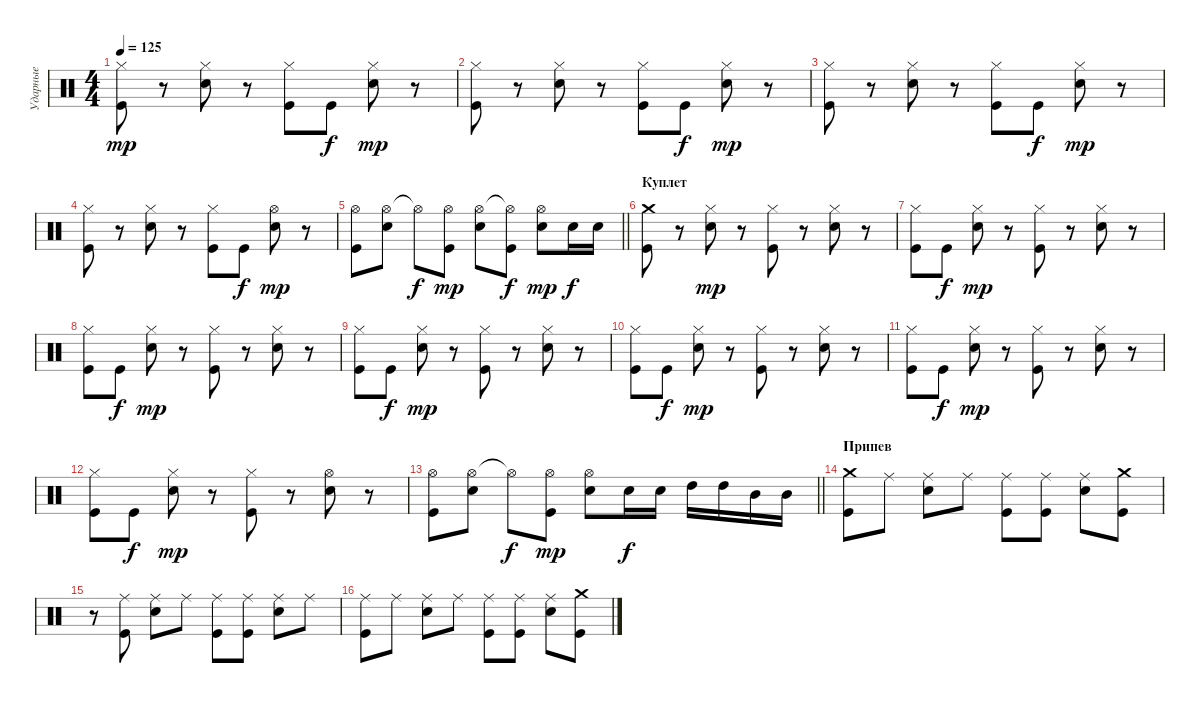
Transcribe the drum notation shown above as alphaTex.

\track ("Ударные" "Ударные") {instrument percussion}
\staff {score}
\articulation defaults
\ts (4 4)
\tempo 125
\clef neutral
\ks c
("Hi-Hat (closed)" "Kick (hit)").8{dy mp} r.8 ("Hi-Hat (closed)" "Electric Snare (hit)").8 r.8 ("Hi-Hat (closed)" "Kick (hit)").8 "Kick (hit)".8{dy f} ("Hi-Hat (closed)" "Electric Snare (hit)").8{dy mp} r.8 |
("Hi-Hat (closed)" "Kick (hit)").8 r.8 ("Hi-Hat (closed)" "Electric Snare (hit)").8 r.8 ("Hi-Hat (closed)" "Kick (hit)").8 "Kick (hit)".8{dy f} ("Hi-Hat (closed)" "Electric Snare (hit)").8{dy mp} r.8 |
("Hi-Hat (closed)" "Kick (hit)").8 r.8 ("Hi-Hat (closed)" "Electric Snare (hit)").8 r.8 ("Hi-Hat (closed)" "Kick (hit)").8 "Kick (hit)".8{dy f} ("Hi-Hat (closed)" "Electric Snare (hit)").8{dy mp} r.8 |
("Hi-Hat (closed)" "Kick (hit)").8 r.8 ("Hi-Hat (closed)" "Electric Snare (hit)").8 r.8 ("Hi-Hat (closed)" "Kick (hit)").8 "Kick (hit)".8{dy f} ("Hi-Hat (open)" "Electric Snare (hit)").8{dy mp} r.8 |
\barLineRight lightlight
("Hi-Hat (open)" "Kick (hit)").8 ("Hi-Hat (open)" "Electric Snare (hit)").8 "Hi-Hat (open)"{t}.8{dy f} ("Hi-Hat (open)" "Kick (hit)").8{dy mp} ("Hi-Hat (open)" "Electric Snare (hit)").8 ("Hi-Hat (open)"{t} "Kick (hit)").8{dy f} ("Hi-Hat (open)" "Electric Snare (hit)").8{dy mp} "Electric Snare (hit)".16{dy f} "Electric Snare (hit)".16 |
\section ("" "Куплет")
("Crash medium (hit)" "Kick (hit)").8 r.8 ("Hi-Hat (closed)" "Electric Snare (hit)").8{dy mp} r.8 ("Hi-Hat (closed)" "Kick (hit)").8 r.8 ("Hi-Hat (closed)" "Electric Snare (hit)").8 r.8 |
("Hi-Hat (closed)" "Kick (hit)").8 "Kick (hit)".8{dy f} ("Hi-Hat (closed)" "Electric Snare (hit)").8{dy mp} r.8 ("Hi-Hat (closed)" "Kick (hit)").8 r.8 ("Hi-Hat (closed)" "Electric Snare (hit)").8 r.8 |
("Hi-Hat (closed)" "Kick (hit)").8 "Kick (hit)".8{dy f} ("Hi-Hat (closed)" "Electric Snare (hit)").8{dy mp} r.8 ("Hi-Hat (closed)" "Kick (hit)").8 r.8 ("Hi-Hat (closed)" "Electric Snare (hit)").8 r.8 |
("Hi-Hat (closed)" "Kick (hit)").8 "Kick (hit)".8{dy f} ("Hi-Hat (closed)" "Electric Snare (hit)").8{dy mp} r.8 ("Hi-Hat (closed)" "Kick (hit)").8 r.8 ("Hi-Hat (closed)" "Electric Snare (hit)").8 r.8 |
("Hi-Hat (closed)" "Kick (hit)").8 "Kick (hit)".8{dy f} ("Hi-Hat (closed)" "Electric Snare (hit)").8{dy mp} r.8 ("Hi-Hat (closed)" "Kick (hit)").8 r.8 ("Hi-Hat (closed)" "Electric Snare (hit)").8 r.8 |
("Hi-Hat (closed)" "Kick (hit)").8 "Kick (hit)".8{dy f} ("Hi-Hat (closed)" "Electric Snare (hit)").8{dy mp} r.8 ("Hi-Hat (closed)" "Kick (hit)").8 r.8 ("Hi-Hat (closed)" "Electric Snare (hit)").8 r.8 |
("Hi-Hat (closed)" "Kick (hit)").8 "Kick (hit)".8{dy f} ("Hi-Hat (closed)" "Electric Snare (hit)").8{dy mp} r.8 ("Hi-Hat (closed)" "Kick (hit)").8 r.8 ("Hi-Hat (open)" "Electric Snare (hit)").8 r.8 |
\barLineRight lightlight
("Hi-Hat (open)" "Kick (hit)").8 ("Hi-Hat (open)" "Electric Snare (hit)").8 "Hi-Hat (open)"{t}.8{dy f} ("Hi-Hat (open)" "Kick (hit)").8{dy mp} ("Hi-Hat (open)" "Electric Snare (hit)").8 "Electric Snare (hit)".16{dy f} "Electric Snare (hit)".16 "High Tom (hit)".16 "High Tom (hit)".16 "Mid Tom (hit)".16 "Mid Tom (hit)".16 |
\section ("" "Припев")
("Crash medium (hit)" "Kick (hit)").8 "Ride (middle)".8 ("Ride (middle)" "Electric Snare (hit)").8 "Ride (middle)".8 ("Ride (middle)" "Kick (hit)").8 ("Ride (middle)" "Kick (hit)").8 ("Ride (middle)" "Electric Snare (hit)").8 ("Crash medium (hit)" "Kick (hit)").8 |
r.8 ("Ride (middle)" "Kick (hit)").8 ("Ride (middle)" "Electric Snare (hit)").8 "Ride (middle)".8 ("Ride (middle)" "Kick (hit)").8 ("Ride (middle)" "Kick (hit)").8 ("Ride (middle)" "Electric Snare (hit)").8 "Ride (middle)".8 |
("Ride (middle)" "Kick (hit)").8 "Ride (middle)".8 ("Ride (middle)" "Electric Snare (hit)").8 "Ride (middle)".8 ("Ride (middle)" "Kick (hit)").8 ("Ride (middle)" "Kick (hit)").8 ("Ride (middle)" "Electric Snare (hit)").8 ("Crash medium (hit)" "Kick (hit)").8
